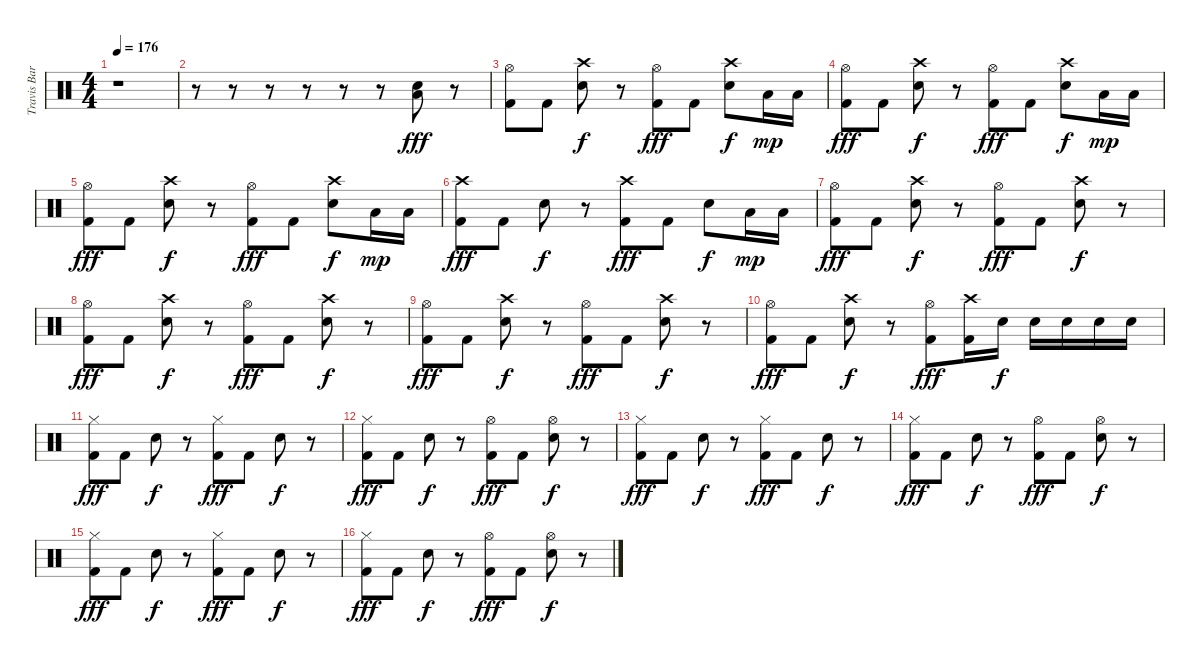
\track ("Travis Barker - Drums" "Travis Bar") {instrument percussion}
\staff {score}
\articulation defaults
\ts (4 4)
\tempo 176
\clef neutral
\ks c
r.1{dy fff} |
r.8 r.8 r.8 r.8 r.8 r.8 ("Low Tom (hit)" "Snare (hit) 2").8 r.8 |
("Kick (hit) 2" "Hi-Hat (open)").8 "Kick (hit) 2".8 ("Snare (hit) 2" "Crash high (hit)").8{dy f} r.8 ("Kick (hit) 2" "Hi-Hat (open)").8{dy fff} "Kick (hit) 2".8 ("Snare (hit) 2" "Crash high (hit)").8{dy f} "Low Tom (hit)".16{dy mp} "Low Tom (hit)".16 |
("Kick (hit) 2" "Hi-Hat (open)").8{dy fff} "Kick (hit) 2".8 ("Snare (hit) 2" "Crash high (hit)").8{dy f} r.8 ("Kick (hit) 2" "Hi-Hat (open)").8{dy fff} "Kick (hit) 2".8 ("Snare (hit) 2" "Crash high (hit)").8{dy f} "Low Tom (hit)".16{dy mp} "Low Tom (hit)".16 |
("Kick (hit) 2" "Hi-Hat (open)").8{dy fff} "Kick (hit) 2".8 ("Snare (hit) 2" "Crash high (hit)").8{dy f} r.8 ("Kick (hit) 2" "Hi-Hat (open)").8{dy fff} "Kick (hit) 2".8 ("Snare (hit) 2" "Crash high (hit)").8{dy f} "Low Tom (hit)".16{dy mp} "Low Tom (hit)".16 |
("Kick (hit) 2" "Crash high (hit)").8{dy fff} "Kick (hit) 2".8 "Snare (hit) 2".8{dy f} r.8 ("Kick (hit) 2" "Crash high (hit)").8{dy fff} "Kick (hit) 2".8 "Snare (hit) 2".8{dy f} "Low Tom (hit)".16{dy mp} "Low Tom (hit)".16 |
("Kick (hit) 2" "Hi-Hat (open)").8{dy fff} "Kick (hit) 2".8 ("Snare (hit) 2" "Crash high (hit)").8{dy f} r.8 ("Kick (hit) 2" "Hi-Hat (open)").8{dy fff} "Kick (hit) 2".8 ("Snare (hit) 2" "Crash high (hit)").8{dy f} r.8 |
("Kick (hit) 2" "Hi-Hat (open)").8{dy fff} "Kick (hit) 2".8 ("Snare (hit) 2" "Crash high (hit)").8{dy f} r.8 ("Kick (hit) 2" "Hi-Hat (open)").8{dy fff} "Kick (hit) 2".8 ("Snare (hit) 2" "Crash high (hit)").8{dy f} r.8 |
("Kick (hit) 2" "Hi-Hat (open)").8{dy fff} "Kick (hit) 2".8 ("Snare (hit) 2" "Crash high (hit)").8{dy f} r.8 ("Kick (hit) 2" "Hi-Hat (open)").8{dy fff} "Kick (hit) 2".8 ("Snare (hit) 2" "Crash high (hit)").8{dy f} r.8 |
("Kick (hit) 2" "Hi-Hat (open)").8{dy fff} "Kick (hit) 2".8 ("Snare (hit) 2" "Crash high (hit)").8{dy f} r.8 ("Kick (hit) 2" "Hi-Hat (open)").8{dy fff} ("Kick (hit) 2" "Crash high (hit)").16 "Snare (hit) 2".16{dy f} "Snare (hit) 2".16 "Snare (hit) 2".16 "Snare (hit) 2".16 "Snare (hit) 2".16 |
("Kick (hit) 2" "Hi-Hat (closed)").8{dy fff} "Kick (hit) 2".8 "Snare (hit) 2".8{dy f} r.8 ("Kick (hit) 2" "Hi-Hat (closed)").8{dy fff} "Kick (hit) 2".8 "Snare (hit) 2".8{dy f} r.8 |
("Kick (hit) 2" "Hi-Hat (closed)").8{dy fff} "Kick (hit) 2".8 "Snare (hit) 2".8{dy f} r.8 ("Kick (hit) 2" "Hi-Hat (open)").8{dy fff} "Kick (hit) 2".8 ("Snare (hit) 2" "Hi-Hat (open)").8{dy f} r.8 |
("Kick (hit) 2" "Hi-Hat (closed)").8{dy fff} "Kick (hit) 2".8 "Snare (hit) 2".8{dy f} r.8 ("Kick (hit) 2" "Hi-Hat (closed)").8{dy fff} "Kick (hit) 2".8 "Snare (hit) 2".8{dy f} r.8 |
("Kick (hit) 2" "Hi-Hat (closed)").8{dy fff} "Kick (hit) 2".8 "Snare (hit) 2".8{dy f} r.8 ("Kick (hit) 2" "Hi-Hat (open)").8{dy fff} "Kick (hit) 2".8 ("Snare (hit) 2" "Hi-Hat (open)").8{dy f} r.8 |
("Kick (hit) 2" "Hi-Hat (closed)").8{dy fff} "Kick (hit) 2".8 "Snare (hit) 2".8{dy f} r.8 ("Kick (hit) 2" "Hi-Hat (closed)").8{dy fff} "Kick (hit) 2".8 "Snare (hit) 2".8{dy f} r.8 |
("Kick (hit) 2" "Hi-Hat (closed)").8{dy fff} "Kick (hit) 2".8 "Snare (hit) 2".8{dy f} r.8 ("Kick (hit) 2" "Hi-Hat (open)").8{dy fff} "Kick (hit) 2".8 ("Snare (hit) 2" "Hi-Hat (open)").8{dy f} r.8
